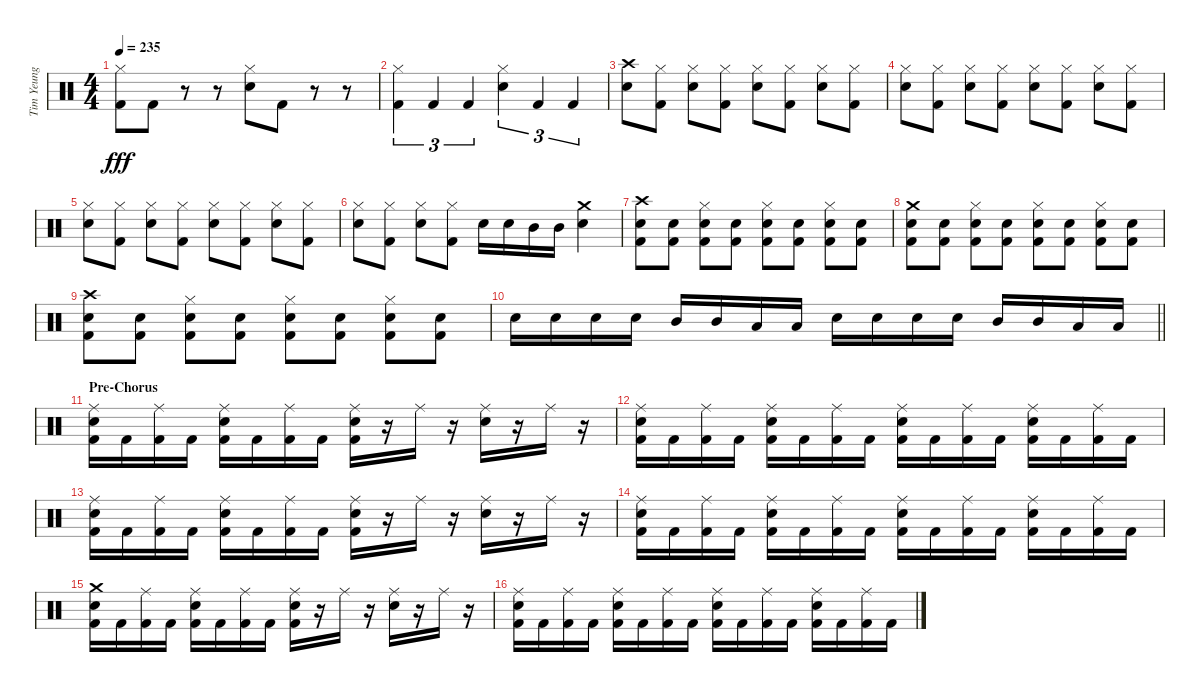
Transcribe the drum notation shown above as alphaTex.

\track ("Tim Yeung" "Tim Yeung") {instrument percussion}
\staff {score}
\articulation defaults
\ts (4 4)
\tempo 235
\clef neutral
\ks c
("Hi-Hat (closed)" "Kick (hit) 2").8{dy fff} "Kick (hit) 2".8 r.8 r.8 ("Hi-Hat (closed)" "Electric Snare (hit)").8 "Kick (hit) 2".8 r.8 r.8 |
("Hi-Hat (closed)" "Kick (hit) 2").4{tu (3 2)} "Kick (hit) 2".4{tu (3 2)} "Kick (hit) 2".4{tu (3 2)} ("Hi-Hat (closed)" "Electric Snare (hit)").4{tu (3 2)} "Kick (hit) 2".4{tu (3 2)} "Kick (hit) 2".4{tu (3 2)} |
("Crash high (hit)" "Electric Snare (hit)").8 ("Hi-Hat (closed)" "Kick (hit) 2").8 ("Hi-Hat (closed)" "Electric Snare (hit)").8 ("Hi-Hat (closed)" "Kick (hit) 2").8 ("Hi-Hat (closed)" "Electric Snare (hit)").8 ("Hi-Hat (closed)" "Kick (hit) 2").8 ("Hi-Hat (closed)" "Electric Snare (hit)").8 ("Hi-Hat (closed)" "Kick (hit) 2").8 |
("Hi-Hat (closed)" "Electric Snare (hit)").8 ("Hi-Hat (closed)" "Kick (hit) 2").8 ("Hi-Hat (closed)" "Electric Snare (hit)").8 ("Hi-Hat (closed)" "Kick (hit) 2").8 ("Hi-Hat (closed)" "Electric Snare (hit)").8 ("Hi-Hat (closed)" "Kick (hit) 2").8 ("Hi-Hat (closed)" "Electric Snare (hit)").8 ("Hi-Hat (closed)" "Kick (hit) 2").8 |
("Hi-Hat (closed)" "Electric Snare (hit)").8 ("Hi-Hat (closed)" "Kick (hit) 2").8 ("Hi-Hat (closed)" "Electric Snare (hit)").8 ("Hi-Hat (closed)" "Kick (hit) 2").8 ("Hi-Hat (closed)" "Electric Snare (hit)").8 ("Hi-Hat (closed)" "Kick (hit) 2").8 ("Hi-Hat (closed)" "Electric Snare (hit)").8 ("Hi-Hat (closed)" "Kick (hit) 2").8 |
("Hi-Hat (closed)" "Electric Snare (hit)").8 ("Hi-Hat (closed)" "Kick (hit) 2").8 ("Hi-Hat (closed)" "Electric Snare (hit)").8 ("Hi-Hat (closed)" "Kick (hit) 2").8 "Electric Snare (hit)".16 "Electric Snare (hit)".16 "Mid Tom (hit)".16 "Mid Tom (hit)".16 ("Crash medium (hit)" "Electric Snare (hit)").4 |
("Crash high (hit)" "Electric Snare (hit)" "Kick (hit) 2").8 ("Electric Snare (hit)" "Kick (hit) 2").8 ("Hi-Hat (closed)" "Electric Snare (hit)" "Kick (hit) 2").8 ("Electric Snare (hit)" "Kick (hit) 2").8 ("Hi-Hat (closed)" "Electric Snare (hit)" "Kick (hit) 2").8 ("Electric Snare (hit)" "Kick (hit) 2").8 ("Hi-Hat (closed)" "Electric Snare (hit)" "Kick (hit) 2").8 ("Electric Snare (hit)" "Kick (hit) 2").8 |
("Crash medium (hit)" "Electric Snare (hit)" "Kick (hit) 2").8 ("Electric Snare (hit)" "Kick (hit) 2").8 ("Hi-Hat (closed)" "Electric Snare (hit)" "Kick (hit) 2").8 ("Electric Snare (hit)" "Kick (hit) 2").8 ("Hi-Hat (closed)" "Electric Snare (hit)" "Kick (hit) 2").8 ("Electric Snare (hit)" "Kick (hit) 2").8 ("Hi-Hat (closed)" "Electric Snare (hit)" "Kick (hit) 2").8 ("Electric Snare (hit)" "Kick (hit) 2").8 |
("Crash high (hit)" "Electric Snare (hit)" "Kick (hit) 2").8 ("Electric Snare (hit)" "Kick (hit) 2").8 ("Hi-Hat (closed)" "Electric Snare (hit)" "Kick (hit) 2").8 ("Electric Snare (hit)" "Kick (hit) 2").8 ("Hi-Hat (closed)" "Electric Snare (hit)" "Kick (hit) 2").8 ("Electric Snare (hit)" "Kick (hit) 2").8 ("Hi-Hat (closed)" "Electric Snare (hit)" "Kick (hit) 2").8 ("Electric Snare (hit)" "Kick (hit) 2").8 |
\barLineRight lightlight "Electric Snare (hit)".16 "Electric Snare (hit)".16 "Electric Snare (hit)".16 "Electric Snare (hit)".16 "Mid Tom (hit)".16 "Mid Tom (hit)".16 "Low Tom (hit)".16 "Low Tom (hit)".16 "Electric Snare (hit)".16 "Electric Snare (hit)".16 "Electric Snare (hit)".16 "Electric Snare (hit)".16 "Mid Tom (hit)".16 "Mid Tom (hit)".16 "Low Tom (hit)".16 "Low Tom (hit)".16
|
\section ("" "Pre-Chorus")
("Ride (middle)" "Electric Snare (hit)" "Kick (hit) 2").16 "Kick (hit) 2".16 ("Ride (middle)" "Kick (hit) 2").16 "Kick (hit) 2".16 ("Ride (middle)" "Electric Snare (hit)" "Kick (hit) 2").16 "Kick (hit) 2".16 ("Ride (middle)" "Kick (hit) 2").16 "Kick (hit) 2".16 ("Ride (middle)" "Electric Snare (hit)" "Kick (hit) 2").16 r.16 "Ride (middle)".16 r.16 ("Ride (middle)" "Electric Snare (hit)").16 r.16 "Ride (middle)".16 r.16 |
("Ride (middle)" "Electric Snare (hit)" "Kick (hit) 2").16 "Kick (hit) 2".16 ("Ride (middle)" "Kick (hit) 2").16 "Kick (hit) 2".16 ("Ride (middle)" "Electric Snare (hit)" "Kick (hit) 2").16 "Kick (hit) 2".16 ("Ride (middle)" "Kick (hit) 2").16 "Kick (hit) 2".16 ("Ride (middle)" "Electric Snare (hit)" "Kick (hit) 2").16 "Kick (hit) 2".16 ("Ride (middle)" "Kick (hit) 2").16 "Kick (hit) 2".16 ("Ride (middle)" "Electric Snare (hit)" "Kick (hit) 2").16 "Kick (hit) 2".16 ("Ride (middle)" "Kick (hit) 2").16 "Kick (hit) 2".16 |
("Ride (middle)" "Electric Snare (hit)" "Kick (hit) 2").16 "Kick (hit) 2".16 ("Ride (middle)" "Kick (hit) 2").16 "Kick (hit) 2".16 ("Ride (middle)" "Electric Snare (hit)" "Kick (hit) 2").16 "Kick (hit) 2".16 ("Ride (middle)" "Kick (hit) 2").16 "Kick (hit) 2".16 ("Ride (middle)" "Electric Snare (hit)" "Kick (hit) 2").16 r.16 "Ride (middle)".16 r.16 ("Ride (middle)" "Electric Snare (hit)").16 r.16 "Ride (middle)".16 r.16 |
("Ride (middle)" "Electric Snare (hit)" "Kick (hit) 2").16 "Kick (hit) 2".16 ("Ride (middle)" "Kick (hit) 2").16 "Kick (hit) 2".16 ("Ride (middle)" "Electric Snare (hit)" "Kick (hit) 2").16 "Kick (hit) 2".16 ("Ride (middle)" "Kick (hit) 2").16 "Kick (hit) 2".16 ("Ride (middle)" "Electric Snare (hit)" "Kick (hit) 2").16 "Kick (hit) 2".16 ("Ride (middle)" "Kick (hit) 2").16 "Kick (hit) 2".16 ("Ride (middle)" "Electric Snare (hit)" "Kick (hit) 2").16 "Kick (hit) 2".16 ("Ride (middle)" "Kick (hit) 2").16 "Kick (hit) 2".16 |
("Crash medium (hit)" "Electric Snare (hit)" "Kick (hit) 2").16 "Kick (hit) 2".16 ("Ride (middle)" "Kick (hit) 2").16 "Kick (hit) 2".16 ("Ride (middle)" "Electric Snare (hit)" "Kick (hit) 2").16 "Kick (hit) 2".16 ("Ride (middle)" "Kick (hit) 2").16 "Kick (hit) 2".16 ("Ride (middle)" "Electric Snare (hit)" "Kick (hit) 2").16 r.16 "Ride (middle)".16 r.16 ("Ride (middle)" "Electric Snare (hit)").16 r.16 "Ride (middle)".16 r.16 |
("Ride (middle)" "Electric Snare (hit)" "Kick (hit) 2").16 "Kick (hit) 2".16 ("Ride (middle)" "Kick (hit) 2").16 "Kick (hit) 2".16 ("Ride (middle)" "Electric Snare (hit)" "Kick (hit) 2").16 "Kick (hit) 2".16 ("Ride (middle)" "Kick (hit) 2").16 "Kick (hit) 2".16 ("Ride (middle)" "Electric Snare (hit)" "Kick (hit) 2").16 "Kick (hit) 2".16 ("Ride (middle)" "Kick (hit) 2").16 "Kick (hit) 2".16 ("Ride (middle)" "Electric Snare (hit)" "Kick (hit) 2").16 "Kick (hit) 2".16 ("Ride (middle)" "Kick (hit) 2").16 "Kick (hit) 2".16
